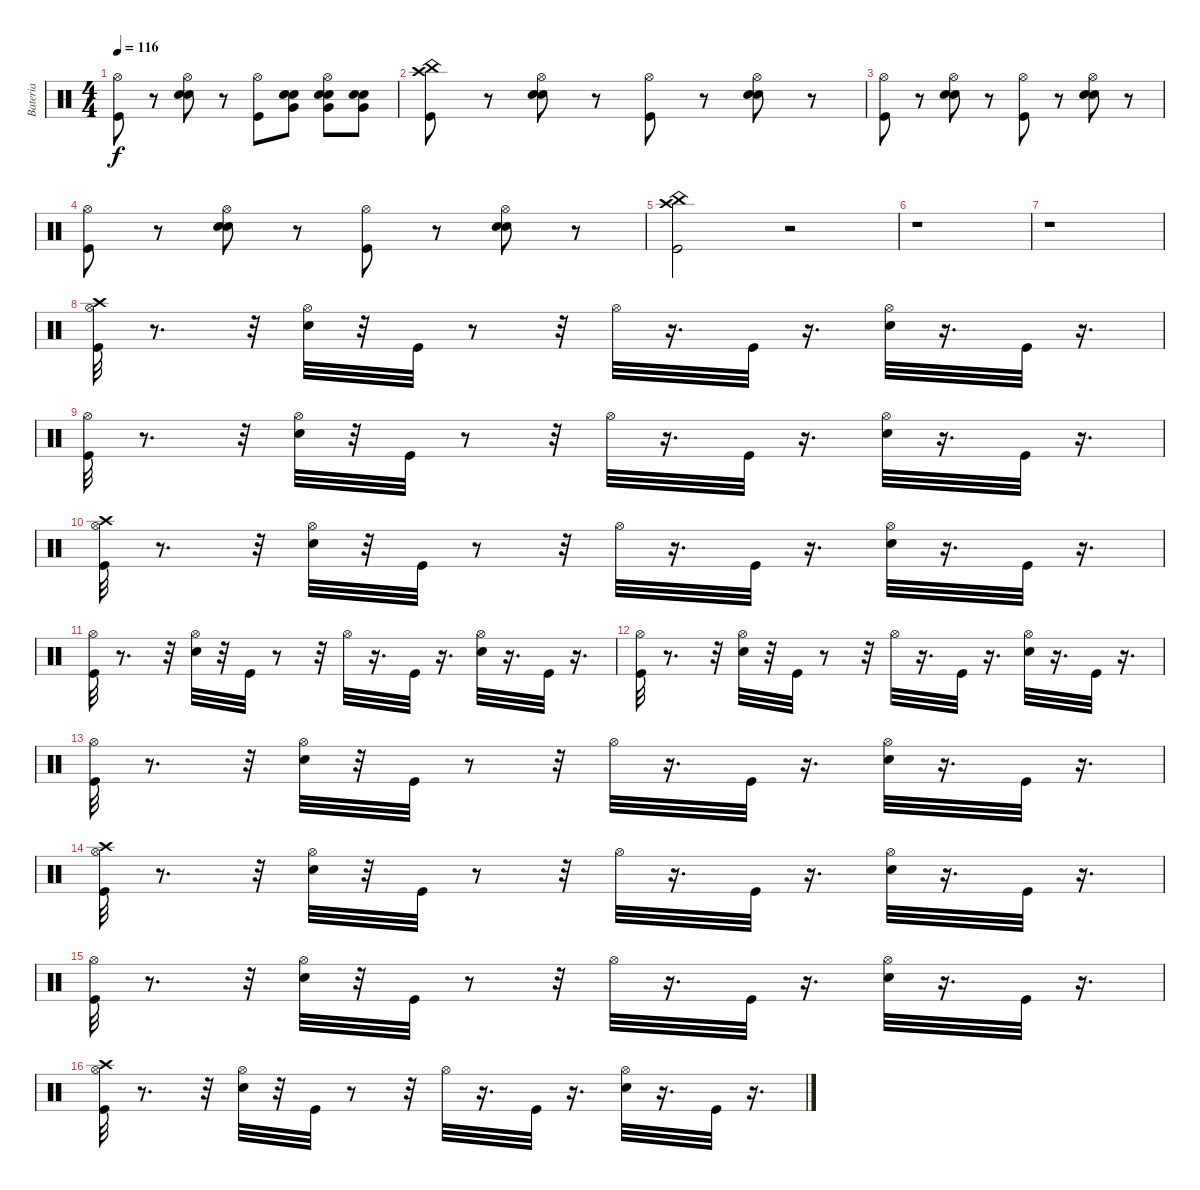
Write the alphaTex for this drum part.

\track ("Bateria" "Bateria") {instrument percussion}
\staff {score}
\articulation defaults
\ts (4 4)
\tempo 116
\clef neutral
\ks c
("Hi-Hat (open)" "Kick (hit)").8{dy f} r.8 ("Snare (hit) 2" "Electric Snare (hit)" "Hi-Hat (open)").8 r.8 ("Hi-Hat (open)" "Kick (hit)").8 ("Very Low Tom (hit)" "Electric Snare (hit)" "Snare (hit) 2").8 ("Very Low Tom (hit)" "Electric Snare (hit)" "Snare (hit) 2" "Hi-Hat (open)").8 ("Very Low Tom (hit)" "Snare (hit) 2" "Electric Snare (hit)").8 |
("Kick (hit)" "Crash high (hit)" "China (hit)").8 r.8 ("Snare (hit) 2" "Electric Snare (hit)" "Hi-Hat (open)").8 r.8 ("Hi-Hat (open)" "Kick (hit)").8 r.8 ("Electric Snare (hit)" "Snare (hit) 2" "Hi-Hat (open)").8 r.8 |
("Hi-Hat (open)" "Kick (hit)").8 r.8 ("Snare (hit) 2" "Electric Snare (hit)" "Hi-Hat (open)").8 r.8 ("Hi-Hat (open)" "Kick (hit)").8 r.8 ("Electric Snare (hit)" "Snare (hit) 2" "Hi-Hat (open)").8 r.8 |
("Hi-Hat (open)" "Kick (hit)").8 r.8 ("Snare (hit) 2" "Electric Snare (hit)" "Hi-Hat (open)").8 r.8 ("Hi-Hat (open)" "Kick (hit)").8 r.8 ("Electric Snare (hit)" "Snare (hit) 2" "Hi-Hat (open)").8 r.8 |
("Kick (hit)" "Crash high (hit)" "China (hit)").2 r.2 |
r.1 |
r.1 |
("Hi-Hat (open)" "Kick (hit)" "Crash high (hit)").32 r.8{d} r.32 ("Hi-Hat (open)" "Electric Snare (hit)").32 r.32 "Kick (hit)".32 r.8 r.32 "Hi-Hat (open)".32 r.16{d} "Kick (hit)".32 r.16{d} ("Hi-Hat (open)" "Electric Snare (hit)").32 r.16{d} "Kick (hit)".32 r.16{d} |
("Hi-Hat (open)" "Kick (hit)").32 r.8{d} r.32 ("Hi-Hat (open)" "Electric Snare (hit)").32 r.32 "Kick (hit)".32 r.8 r.32 "Hi-Hat (open)".32 r.16{d} "Kick (hit)".32 r.16{d} ("Hi-Hat (open)" "Electric Snare (hit)").32 r.16{d} "Kick (hit)".32 r.16{d} |
("Hi-Hat (open)" "Kick (hit)" "Crash high (hit)").32 r.8{d} r.32 ("Hi-Hat (open)" "Electric Snare (hit)").32 r.32 "Kick (hit)".32 r.8 r.32 "Hi-Hat (open)".32 r.16{d} "Kick (hit)".32 r.16{d} ("Hi-Hat (open)" "Electric Snare (hit)").32 r.16{d} "Kick (hit)".32 r.16{d} |
("Hi-Hat (open)" "Kick (hit)").32 r.8{d} r.32 ("Hi-Hat (open)" "Electric Snare (hit)").32 r.32 "Kick (hit)".32 r.8 r.32 "Hi-Hat (open)".32 r.16{d} "Kick (hit)".32 r.16{d} ("Hi-Hat (open)" "Electric Snare (hit)").32 r.16{d} "Kick (hit)".32 r.16{d} |
("Hi-Hat (open)" "Kick (hit)").32 r.8{d} r.32 ("Hi-Hat (open)" "Electric Snare (hit)").32 r.32 "Kick (hit)".32 r.8 r.32 "Hi-Hat (open)".32 r.16{d} "Kick (hit)".32 r.16{d} ("Hi-Hat (open)" "Electric Snare (hit)").32 r.16{d} "Kick (hit)".32 r.16{d} |
("Hi-Hat (open)" "Kick (hit)").32 r.8{d} r.32 ("Hi-Hat (open)" "Electric Snare (hit)").32 r.32 "Kick (hit)".32 r.8 r.32 "Hi-Hat (open)".32 r.16{d} "Kick (hit)".32 r.16{d} ("Hi-Hat (open)" "Electric Snare (hit)").32 r.16{d} "Kick (hit)".32 r.16{d} |
("Hi-Hat (open)" "Kick (hit)" "Crash high (hit)").32 r.8{d} r.32 ("Hi-Hat (open)" "Electric Snare (hit)").32 r.32 "Kick (hit)".32 r.8 r.32 "Hi-Hat (open)".32 r.16{d} "Kick (hit)".32 r.16{d} ("Hi-Hat (open)" "Electric Snare (hit)").32 r.16{d} "Kick (hit)".32 r.16{d} |
("Hi-Hat (open)" "Kick (hit)").32 r.8{d} r.32 ("Hi-Hat (open)" "Electric Snare (hit)").32 r.32 "Kick (hit)".32 r.8 r.32 "Hi-Hat (open)".32 r.16{d} "Kick (hit)".32 r.16{d} ("Hi-Hat (open)" "Electric Snare (hit)").32 r.16{d} "Kick (hit)".32 r.16{d} |
("Hi-Hat (open)" "Kick (hit)" "Crash high (hit)").32 r.8{d} r.32 ("Hi-Hat (open)" "Electric Snare (hit)").32 r.32 "Kick (hit)".32 r.8 r.32 "Hi-Hat (open)".32 r.16{d} "Kick (hit)".32 r.16{d} ("Hi-Hat (open)" "Electric Snare (hit)").32 r.16{d} "Kick (hit)".32 r.16{d}
